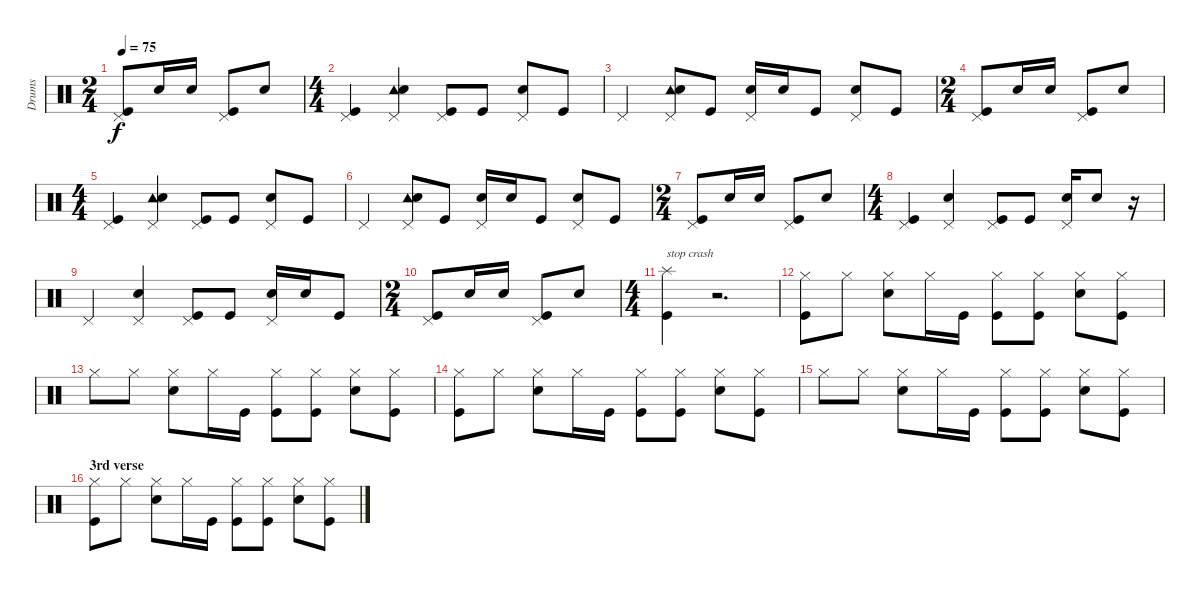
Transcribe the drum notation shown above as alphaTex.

\track ("Drums" "Drums") {instrument percussion}
\staff {score}
\articulation defaults
\ts (2 4)
\tempo 75
\clef neutral
\ks aminor
("Pedal Hi-Hat (hit)" "Kick (hit)").8{dy f} "Snare (hit) 2".16 "Snare (hit) 2".16 ("Pedal Hi-Hat (hit)" "Kick (hit)").8 "Snare (hit) 2".8 |
\ts (4 4)
("Pedal Hi-Hat (hit)" "Kick (hit)").4 ("Pedal Hi-Hat (hit)" "Tambourine (hit)" "Snare (hit) 2").4 ("Pedal Hi-Hat (hit)" "Kick (hit)").8 "Kick (hit)".8 ("Pedal Hi-Hat (hit)" "Snare (hit) 2").8 "Kick (hit)".8 |
"Pedal Hi-Hat (hit)".4 ("Pedal Hi-Hat (hit)" "Tambourine (hit)" "Snare (hit) 2").8 "Kick (hit)".8 ("Pedal Hi-Hat (hit)" "Snare (hit) 2").16 "Snare (hit) 2".16 "Kick (hit)".8 ("Pedal Hi-Hat (hit)" "Snare (hit) 2").8 "Kick (hit)".8 |
\ts (2 4)
("Pedal Hi-Hat (hit)" "Kick (hit)").8 "Snare (hit) 2".16 "Snare (hit) 2".16 ("Pedal Hi-Hat (hit)" "Kick (hit)").8 "Snare (hit) 2".8 |
\ts (4 4)
("Pedal Hi-Hat (hit)" "Kick (hit)").4 ("Pedal Hi-Hat (hit)" "Tambourine (hit)" "Snare (hit) 2").4 ("Pedal Hi-Hat (hit)" "Kick (hit)").8 "Kick (hit)".8 ("Pedal Hi-Hat (hit)" "Snare (hit) 2").8 "Kick (hit)".8 |
"Pedal Hi-Hat (hit)".4 ("Pedal Hi-Hat (hit)" "Tambourine (hit)" "Snare (hit) 2").8 "Kick (hit)".8 ("Pedal Hi-Hat (hit)" "Snare (hit) 2").16 "Snare (hit) 2".16 "Kick (hit)".8 ("Pedal Hi-Hat (hit)" "Snare (hit) 2").8 "Kick (hit)".8 |
\ts (2 4)
("Pedal Hi-Hat (hit)" "Kick (hit)").8 "Snare (hit) 2".16 "Snare (hit) 2".16 ("Pedal Hi-Hat (hit)" "Kick (hit)").8 "Snare (hit) 2".8 |
\ts (4 4)
("Pedal Hi-Hat (hit)" "Kick (hit)").4 ("Pedal Hi-Hat (hit)" "Snare (hit) 2").4 ("Pedal Hi-Hat (hit)" "Kick (hit)").8 "Kick (hit)".8 ("Pedal Hi-Hat (hit)" "Snare (hit) 2").16 "Snare (hit) 2".8 r.16 |
"Pedal Hi-Hat (hit)".4 ("Pedal Hi-Hat (hit)" "Snare (hit) 2").4 ("Pedal Hi-Hat (hit)" "Kick (hit)").8 "Kick (hit)".8 ("Pedal Hi-Hat (hit)" "Snare (hit) 2").16 "Snare (hit) 2".16 "Kick (hit)".8 |
\ts (2 4)
("Pedal Hi-Hat (hit)" "Kick (hit)").8 "Snare (hit) 2".16 "Snare (hit) 2".16 ("Pedal Hi-Hat (hit)" "Kick (hit)").8 "Snare (hit) 2".8 |
\ts (4 4)
("Splash (hit)" "Kick (hit)").4{txt "stop crash"} r.2{d} |
("Hi-Hat (closed)" "Kick (hit)").8 "Hi-Hat (closed)".8 ("Hi-Hat (closed)" "Snare (hit) 2").8 "Hi-Hat (closed)".16 "Kick (hit)".16 ("Hi-Hat (closed)" "Kick (hit)").8 ("Hi-Hat (closed)" "Kick (hit)").8 ("Hi-Hat (closed)" "Snare (hit) 2").8 ("Hi-Hat (closed)" "Kick (hit)").8 |
"Hi-Hat (closed)".8 "Hi-Hat (closed)".8 ("Hi-Hat (closed)" "Snare (hit) 2").8 "Hi-Hat (closed)".16 "Kick (hit)".16 ("Hi-Hat (closed)" "Kick (hit)").8 ("Hi-Hat (closed)" "Kick (hit)").8 ("Hi-Hat (closed)" "Snare (hit) 2").8 ("Hi-Hat (closed)" "Kick (hit)").8 |
("Hi-Hat (closed)" "Kick (hit)").8 "Hi-Hat (closed)".8 ("Hi-Hat (closed)" "Snare (hit) 2").8 "Hi-Hat (closed)".16 "Kick (hit)".16 ("Hi-Hat (closed)" "Kick (hit)").8 ("Hi-Hat (closed)" "Kick (hit)").8 ("Hi-Hat (closed)" "Snare (hit) 2").8 ("Hi-Hat (closed)" "Kick (hit)").8 |
"Hi-Hat (closed)".8 "Hi-Hat (closed)".8 ("Hi-Hat (closed)" "Snare (hit) 2").8 "Hi-Hat (closed)".16 "Kick (hit)".16 ("Hi-Hat (closed)" "Kick (hit)").8 ("Hi-Hat (closed)" "Kick (hit)").8 ("Hi-Hat (closed)" "Snare (hit) 2").8 ("Hi-Hat (closed)" "Kick (hit)").8 |
\section ("" "3rd verse")
("Hi-Hat (closed)" "Kick (hit)").8 "Hi-Hat (closed)".8 ("Hi-Hat (closed)" "Snare (hit) 2").8 "Hi-Hat (closed)".16 "Kick (hit)".16 ("Hi-Hat (closed)" "Kick (hit)").8 ("Hi-Hat (closed)" "Kick (hit)").8 ("Hi-Hat (closed)" "Snare (hit) 2").8 ("Hi-Hat (closed)" "Kick (hit)").8
